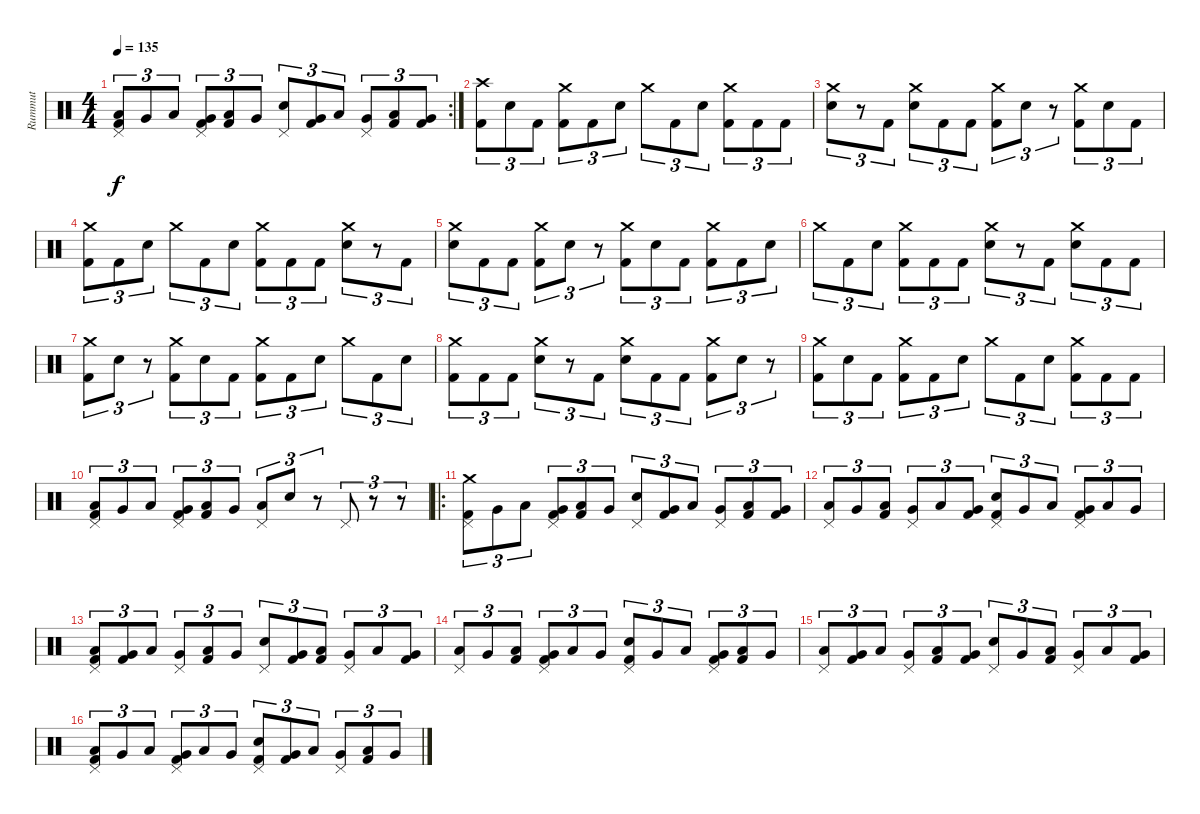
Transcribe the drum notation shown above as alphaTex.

\track ("Rummut" "Rummut") {instrument percussion}
\staff {score}
\articulation defaults
\rc 2
\ts (4 4)
\tempo 135
\clef neutral
\ks c
("Pedal Hi-Hat (hit)" "Low Floor Tom (hit)" "Kick (hit) 2").8{tu (3 2) dy f} "Very Low Tom (hit)".8{tu (3 2)} "Low Floor Tom (hit)".8{tu (3 2)} ("Pedal Hi-Hat (hit)" "Very Low Tom (hit)" "Kick (hit) 2").8{tu (3 2)} ("Low Floor Tom (hit)" "Kick (hit) 2").8{tu (3 2)} "Very Low Tom (hit)".8{tu (3 2)} ("Pedal Hi-Hat (hit)" "Electric Snare (hit)").8{tu (3 2)} ("Very Low Tom (hit)" "Kick (hit) 2").8{tu (3 2)} "Low Floor Tom (hit)".8{tu (3 2)} ("Pedal Hi-Hat (hit)" "Very Low Tom (hit)").8{tu (3 2)} ("Low Floor Tom (hit)" "Kick (hit) 2").8{tu (3 2)} ("Very Low Tom (hit)" "Kick (hit) 2").8{tu (3 2)} |
("Crash high (hit)" "Kick (hit) 2").8{tu (3 2)} "Electric Snare (hit)".8{tu (3 2)} "Kick (hit) 2".8{tu (3 2)} ("Crash medium (hit)" "Kick (hit) 2").8{tu (3 2)} "Kick (hit) 2".8{tu (3 2)} "Electric Snare (hit)".8{tu (3 2)} "Crash medium (hit)".8{tu (3 2)} "Kick (hit) 2".8{tu (3 2)} "Electric Snare (hit)".8{tu (3 2)} ("Crash medium (hit)" "Kick (hit) 2").8{tu (3 2)} "Kick (hit) 2".8{tu (3 2)} "Kick (hit) 2".8{tu (3 2)} |
("Crash medium (hit)" "Electric Snare (hit)").8{tu (3 2)} r.8{tu (3 2)} "Kick (hit) 2".8{tu (3 2)} ("Crash medium (hit)" "Electric Snare (hit)").8{tu (3 2)} "Kick (hit) 2".8{tu (3 2)} "Kick (hit) 2".8{tu (3 2)} ("Crash medium (hit)" "Kick (hit) 2").8{tu (3 2)} "Electric Snare (hit)".8{tu (3 2)} r.8{tu (3 2)} ("Crash medium (hit)" "Kick (hit) 2").8{tu (3 2)} "Electric Snare (hit)".8{tu (3 2)} "Kick (hit) 2".8{tu (3 2)} |
("Crash medium (hit)" "Kick (hit) 2").8{tu (3 2)} "Kick (hit) 2".8{tu (3 2)} "Electric Snare (hit)".8{tu (3 2)} "Crash medium (hit)".8{tu (3 2)} "Kick (hit) 2".8{tu (3 2)} "Electric Snare (hit)".8{tu (3 2)} ("Crash medium (hit)" "Kick (hit) 2").8{tu (3 2)} "Kick (hit) 2".8{tu (3 2)} "Kick (hit) 2".8{tu (3 2)} ("Crash medium (hit)" "Electric Snare (hit)").8{tu (3 2)} r.8{tu (3 2)} "Kick (hit) 2".8{tu (3 2)} |
("Crash medium (hit)" "Electric Snare (hit)").8{tu (3 2)} "Kick (hit) 2".8{tu (3 2)} "Kick (hit) 2".8{tu (3 2)} ("Crash medium (hit)" "Kick (hit) 2").8{tu (3 2)} "Electric Snare (hit)".8{tu (3 2)} r.8{tu (3 2)} ("Crash medium (hit)" "Kick (hit) 2").8{tu (3 2)} "Electric Snare (hit)".8{tu (3 2)} "Kick (hit) 2".8{tu (3 2)} ("Crash medium (hit)" "Kick (hit) 2").8{tu (3 2)} "Kick (hit) 2".8{tu (3 2)} "Electric Snare (hit)".8{tu (3 2)} |
"Crash medium (hit)".8{tu (3 2)} "Kick (hit) 2".8{tu (3 2)} "Electric Snare (hit)".8{tu (3 2)} ("Crash medium (hit)" "Kick (hit) 2").8{tu (3 2)} "Kick (hit) 2".8{tu (3 2)} "Kick (hit) 2".8{tu (3 2)} ("Crash medium (hit)" "Electric Snare (hit)").8{tu (3 2)} r.8{tu (3 2)} "Kick (hit) 2".8{tu (3 2)} ("Crash medium (hit)" "Electric Snare (hit)").8{tu (3 2)} "Kick (hit) 2".8{tu (3 2)} "Kick (hit) 2".8{tu (3 2)} |
("Crash medium (hit)" "Kick (hit) 2").8{tu (3 2)} "Electric Snare (hit)".8{tu (3 2)} r.8{tu (3 2)} ("Crash medium (hit)" "Kick (hit) 2").8{tu (3 2)} "Electric Snare (hit)".8{tu (3 2)} "Kick (hit) 2".8{tu (3 2)} ("Crash medium (hit)" "Kick (hit) 2").8{tu (3 2)} "Kick (hit) 2".8{tu (3 2)} "Electric Snare (hit)".8{tu (3 2)} "Crash medium (hit)".8{tu (3 2)} "Kick (hit) 2".8{tu (3 2)} "Electric Snare (hit)".8{tu (3 2)} |
("Crash medium (hit)" "Kick (hit) 2").8{tu (3 2)} "Kick (hit) 2".8{tu (3 2)} "Kick (hit) 2".8{tu (3 2)} ("Crash medium (hit)" "Electric Snare (hit)").8{tu (3 2)} r.8{tu (3 2)} "Kick (hit) 2".8{tu (3 2)} ("Crash medium (hit)" "Electric Snare (hit)").8{tu (3 2)} "Kick (hit) 2".8{tu (3 2)} "Kick (hit) 2".8{tu (3 2)} ("Crash medium (hit)" "Kick (hit) 2").8{tu (3 2)} "Electric Snare (hit)".8{tu (3 2)} r.8{tu (3 2)} |
("Crash medium (hit)" "Kick (hit) 2").8{tu (3 2)} "Electric Snare (hit)".8{tu (3 2)} "Kick (hit) 2".8{tu (3 2)} ("Crash medium (hit)" "Kick (hit) 2").8{tu (3 2)} "Kick (hit) 2".8{tu (3 2)} "Electric Snare (hit)".8{tu (3 2)} "Crash medium (hit)".8{tu (3 2)} "Kick (hit) 2".8{tu (3 2)} "Electric Snare (hit)".8{tu (3 2)} ("Crash medium (hit)" "Kick (hit) 2").8{tu (3 2)} "Kick (hit) 2".8{tu (3 2)} "Kick (hit) 2".8{tu (3 2)} |
("Pedal Hi-Hat (hit)" "Low Floor Tom (hit)" "Kick (hit) 2").8{tu (3 2)} "Very Low Tom (hit)".8{tu (3 2)} "Low Floor Tom (hit)".8{tu (3 2)} ("Pedal Hi-Hat (hit)" "Very Low Tom (hit)" "Kick (hit) 2").8{tu (3 2)} ("Low Floor Tom (hit)" "Kick (hit) 2").8{tu (3 2)} "Very Low Tom (hit)".8{tu (3 2)} ("Pedal Hi-Hat (hit)" "Low Floor Tom (hit)").8{tu (3 2)} "Electric Snare (hit)".8{tu (3 2)} r.8{tu (3 2)} "Pedal Hi-Hat (hit)".8{tu (3 2)} r.8{tu (3 2)} r.8{tu (3 2)} |
\ro
("Crash medium (hit)" "Pedal Hi-Hat (hit)" "Kick (hit) 2").8{tu (3 2)} "Very Low Tom (hit)".8{tu (3 2)} "Low Floor Tom (hit)".8{tu (3 2)} ("Pedal Hi-Hat (hit)" "Very Low Tom (hit)" "Kick (hit) 2").8{tu (3 2)} ("Low Floor Tom (hit)" "Kick (hit) 2").8{tu (3 2)} "Very Low Tom (hit)".8{tu (3 2)} ("Pedal Hi-Hat (hit)" "Electric Snare (hit)").8{tu (3 2)} ("Very Low Tom (hit)" "Kick (hit) 2").8{tu (3 2)} "Low Floor Tom (hit)".8{tu (3 2)} ("Pedal Hi-Hat (hit)" "Very Low Tom (hit)").8{tu (3 2)} ("Low Floor Tom (hit)" "Kick (hit) 2").8{tu (3 2)} ("Very Low Tom (hit)" "Kick (hit) 2").8{tu (3 2)} |
("Pedal Hi-Hat (hit)" "Low Floor Tom (hit)").8{tu (3 2)} "Very Low Tom (hit)".8{tu (3 2)} ("Low Floor Tom (hit)" "Kick (hit) 2").8{tu (3 2)} ("Pedal Hi-Hat (hit)" "Very Low Tom (hit)").8{tu (3 2)} "Low Floor Tom (hit)".8{tu (3 2)} ("Very Low Tom (hit)" "Kick (hit) 2").8{tu (3 2)} ("Pedal Hi-Hat (hit)" "Electric Snare (hit)" "Kick (hit) 2").8{tu (3 2)} "Very Low Tom (hit)".8{tu (3 2)} "Low Floor Tom (hit)".8{tu (3 2)} ("Pedal Hi-Hat (hit)" "Very Low Tom (hit)" "Kick (hit) 2").8{tu (3 2)} "Low Floor Tom (hit)".8{tu (3 2)} "Very Low Tom (hit)".8{tu (3 2)} |
("Pedal Hi-Hat (hit)" "Low Floor Tom (hit)" "Kick (hit) 2").8{tu (3 2)} ("Very Low Tom (hit)" "Kick (hit) 2").8{tu (3 2)} "Low Floor Tom (hit)".8{tu (3 2)} ("Pedal Hi-Hat (hit)" "Very Low Tom (hit)").8{tu (3 2)} ("Low Floor Tom (hit)" "Kick (hit) 2").8{tu (3 2)} "Very Low Tom (hit)".8{tu (3 2)} ("Pedal Hi-Hat (hit)" "Electric Snare (hit)").8{tu (3 2)} ("Very Low Tom (hit)" "Kick (hit) 2").8{tu (3 2)} ("Low Floor Tom (hit)" "Kick (hit) 2").8{tu (3 2)} ("Pedal Hi-Hat (hit)" "Very Low Tom (hit)").8{tu (3 2)} "Low Floor Tom (hit)".8{tu (3 2)} ("Very Low Tom (hit)" "Kick (hit) 2").8{tu (3 2)} |
("Pedal Hi-Hat (hit)" "Low Floor Tom (hit)").8{tu (3 2)} "Very Low Tom (hit)".8{tu (3 2)} ("Low Floor Tom (hit)" "Kick (hit) 2").8{tu (3 2)} ("Pedal Hi-Hat (hit)" "Very Low Tom (hit)" "Kick (hit) 2").8{tu (3 2)} "Low Floor Tom (hit)".8{tu (3 2)} "Very Low Tom (hit)".8{tu (3 2)} ("Pedal Hi-Hat (hit)" "Electric Snare (hit)" "Kick (hit) 2").8{tu (3 2)} "Very Low Tom (hit)".8{tu (3 2)} "Low Floor Tom (hit)".8{tu (3 2)} ("Pedal Hi-Hat (hit)" "Very Low Tom (hit)" "Kick (hit) 2").8{tu (3 2)} ("Low Floor Tom (hit)" "Kick (hit) 2").8{tu (3 2)} "Very Low Tom (hit)".8{tu (3 2)} |
("Pedal Hi-Hat (hit)" "Low Floor Tom (hit)").8{tu (3 2)} ("Very Low Tom (hit)" "Kick (hit) 2").8{tu (3 2)} "Low Floor Tom (hit)".8{tu (3 2)} ("Pedal Hi-Hat (hit)" "Very Low Tom (hit)").8{tu (3 2)} ("Low Floor Tom (hit)" "Kick (hit) 2").8{tu (3 2)} ("Very Low Tom (hit)" "Kick (hit) 2").8{tu (3 2)} ("Pedal Hi-Hat (hit)" "Electric Snare (hit)").8{tu (3 2)} "Very Low Tom (hit)".8{tu (3 2)} ("Low Floor Tom (hit)" "Kick (hit) 2").8{tu (3 2)} ("Pedal Hi-Hat (hit)" "Very Low Tom (hit)").8{tu (3 2)} "Low Floor Tom (hit)".8{tu (3 2)} ("Very Low Tom (hit)" "Kick (hit) 2").8{tu (3 2)} |
("Pedal Hi-Hat (hit)" "Low Floor Tom (hit)" "Kick (hit) 2").8{tu (3 2)} "Very Low Tom (hit)".8{tu (3 2)} "Low Floor Tom (hit)".8{tu (3 2)} ("Pedal Hi-Hat (hit)" "Very Low Tom (hit)" "Kick (hit) 2").8{tu (3 2)} "Low Floor Tom (hit)".8{tu (3 2)} "Very Low Tom (hit)".8{tu (3 2)} ("Pedal Hi-Hat (hit)" "Electric Snare (hit)" "Kick (hit) 2").8{tu (3 2)} ("Very Low Tom (hit)" "Kick (hit) 2").8{tu (3 2)} "Low Floor Tom (hit)".8{tu (3 2)} ("Pedal Hi-Hat (hit)" "Very Low Tom (hit)").8{tu (3 2)} ("Low Floor Tom (hit)" "Kick (hit) 2").8{tu (3 2)} "Very Low Tom (hit)".8{tu (3 2)}
